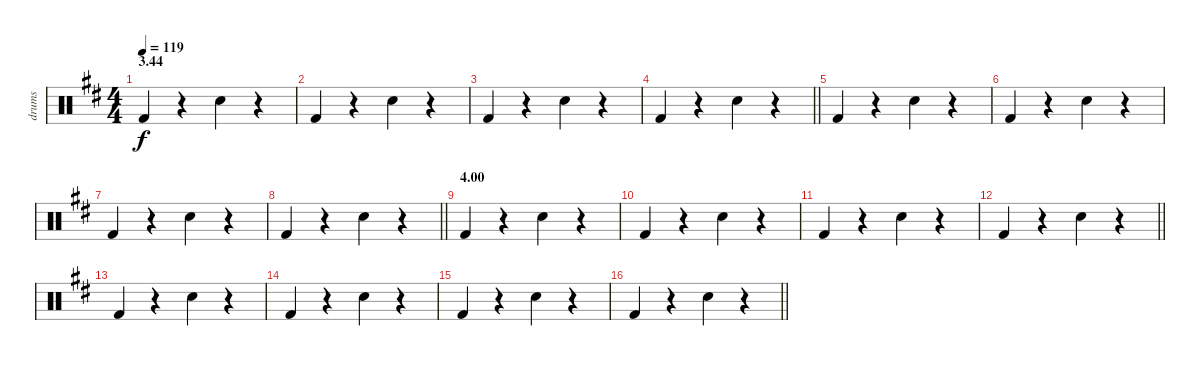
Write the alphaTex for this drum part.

\track ("drums" "drums") {instrument percussion}
\staff {score}
\articulation defaults
\ts (4 4)
\section ("" "3.44")
\tempo 119
\clef neutral
\ks d "Kick (hit) 2".4{dy f}
r.4 "Electric Snare (hit)".4 r.4 |
"Kick (hit) 2".4 r.4 "Electric Snare (hit)".4 r.4 |
"Kick (hit) 2".4 r.4 "Electric Snare (hit)".4 r.4 |
\barLineRight lightlight "Kick (hit) 2".4
r.4 "Electric Snare (hit)".4 r.4 |
"Kick (hit) 2".4 r.4 "Electric Snare (hit)".4 r.4 |
"Kick (hit) 2".4 r.4 "Electric Snare (hit)".4 r.4 |
"Kick (hit) 2".4 r.4 "Electric Snare (hit)".4 r.4 |
\barLineRight lightlight "Kick (hit) 2".4
r.4 "Electric Snare (hit)".4 r.4 |
\section ("" "4.00")
"Kick (hit) 2".4 r.4 "Electric Snare (hit)".4 r.4 |
"Kick (hit) 2".4 r.4 "Electric Snare (hit)".4 r.4 |
"Kick (hit) 2".4 r.4 "Electric Snare (hit)".4 r.4 |
\barLineRight lightlight "Kick (hit) 2".4
r.4 "Electric Snare (hit)".4 r.4 |
"Kick (hit) 2".4 r.4 "Electric Snare (hit)".4 r.4 |
"Kick (hit) 2".4 r.4 "Electric Snare (hit)".4 r.4 |
"Kick (hit) 2".4 r.4 "Electric Snare (hit)".4 r.4 |
\barLineRight lightlight "Kick (hit) 2".4
r.4 "Electric Snare (hit)".4 r.4
